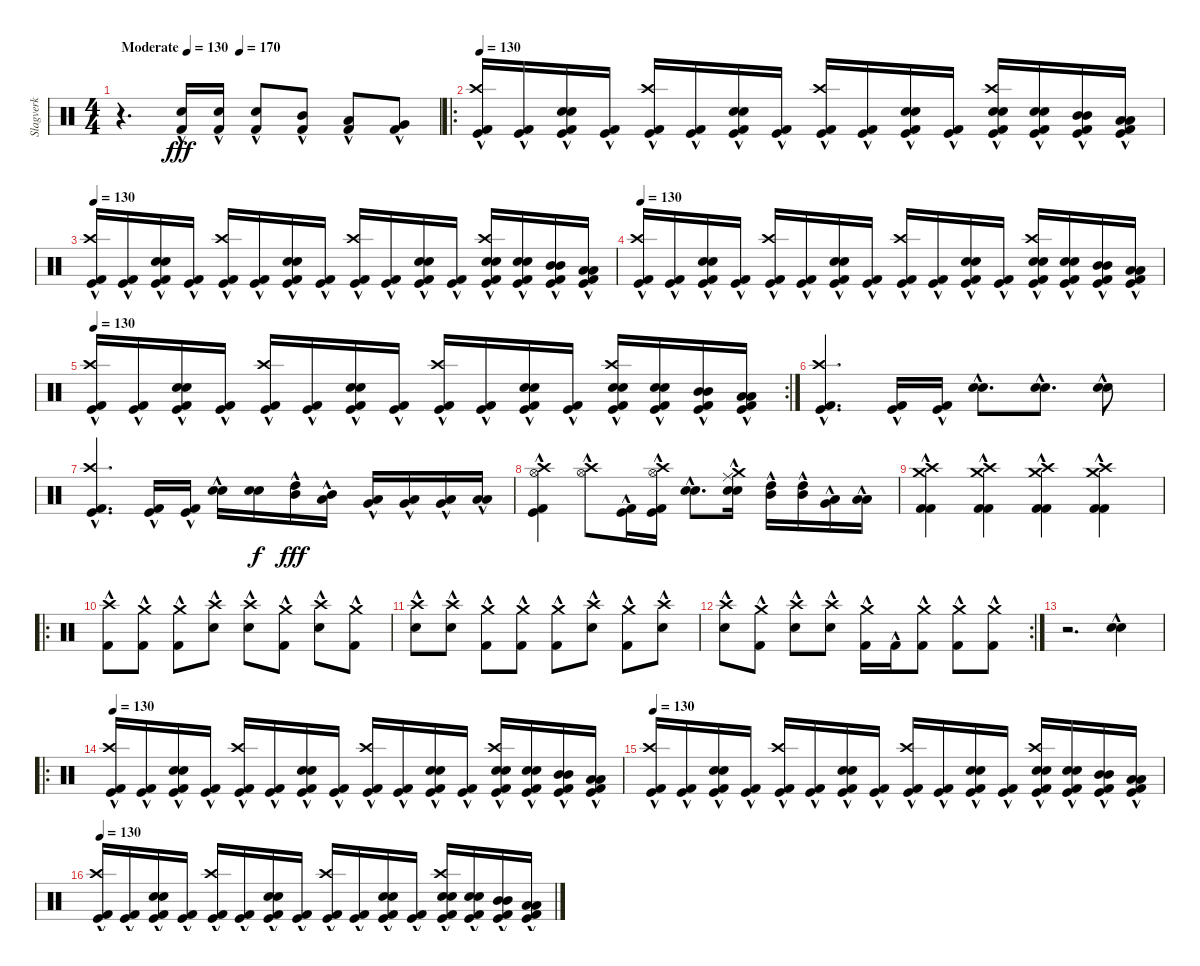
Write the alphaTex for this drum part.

\track ("Slagverk" "Slagverk") {instrument percussion}
\staff {score}
\articulation defaults
\ts (4 4)
\tempo (130 "Moderate")
\tempo (170 0.375)
\tempo (130 "Moderate")
\clef neutral
\ks c
r.4{d dy fff} ("Snare (hit) 2"{hac} "Kick (hit) 2"{hac}).16 ("Snare (hit) 2"{hac} "Kick (hit) 2"{hac}).16 ("Snare (hit) 2"{hac} "Kick (hit) 2"{hac}).8 ("Mid Tom (hit)"{hac} "Kick (hit) 2"{hac}).8 ("Low Tom (hit)"{hac} "Kick (hit) 2"{hac}).8 ("Very Low Tom (hit)"{hac} "Kick (hit) 2"{hac}).8 |
\ro
\tempo 130
("Crash high (hit)"{hac} "Kick (hit)"{hac} "Kick (hit) 2"{hac}).16 ("Kick (hit)"{hac} "Kick (hit) 2"{hac}).16 ("Kick (hit)"{hac} "Electric Snare (hit)"{hac} "Snare (hit) 2"{hac} "Kick (hit) 2"{hac}).16 ("Kick (hit)"{hac} "Kick (hit) 2"{hac}).16 ("Crash high (hit)"{hac} "Kick (hit)"{hac} "Kick (hit) 2"{hac}).16 ("Kick (hit)"{hac} "Kick (hit) 2"{hac}).16 ("Snare (hit) 2"{hac} "Electric Snare (hit)"{hac} "Kick (hit)"{hac} "Kick (hit) 2"{hac}).16 ("Kick (hit)"{hac} "Kick (hit) 2"{hac}).16 ("Crash high (hit)"{hac} "Kick (hit)"{hac} "Kick (hit) 2"{hac}).16 ("Kick (hit)"{hac} "Kick (hit) 2"{hac}).16 ("Electric Snare (hit)"{hac} "Snare (hit) 2"{hac} "Kick (hit)"{hac} "Kick (hit) 2"{hac}).16 ("Kick (hit)"{hac} "Kick (hit) 2"{hac}).16 ("Crash high (hit)"{hac} "Electric Snare (hit)"{hac} "Snare (hit) 2"{hac} "Kick (hit)"{hac} "Kick (hit) 2"{hac}).16 ("Electric Snare (hit)"{hac} "Snare (hit) 2"{hac} "Kick (hit)"{hac} "Kick (hit) 2"{hac}).16 ("Mid Tom (hit)"{hac} "Mid Tom (hit)"{hac} "Kick (hit)"{hac} "Kick (hit) 2"{hac}).16 ("Low Tom (hit)"{hac} "Low Tom (hit)"{hac} "Kick (hit)"{hac} "Kick (hit) 2"{hac}).16 |
\tempo 130
("Crash high (hit)"{hac} "Kick (hit)"{hac} "Kick (hit) 2"{hac}).16 ("Kick (hit)"{hac} "Kick (hit) 2"{hac}).16 ("Kick (hit)"{hac} "Electric Snare (hit)"{hac} "Snare (hit) 2"{hac} "Kick (hit) 2"{hac}).16 ("Kick (hit)"{hac} "Kick (hit) 2"{hac}).16 ("Crash high (hit)"{hac} "Kick (hit)"{hac} "Kick (hit) 2"{hac}).16 ("Kick (hit)"{hac} "Kick (hit) 2"{hac}).16 ("Snare (hit) 2"{hac} "Electric Snare (hit)"{hac} "Kick (hit)"{hac} "Kick (hit) 2"{hac}).16 ("Kick (hit)"{hac} "Kick (hit) 2"{hac}).16 ("Crash high (hit)"{hac} "Kick (hit)"{hac} "Kick (hit) 2"{hac}).16 ("Kick (hit)"{hac} "Kick (hit) 2"{hac}).16 ("Electric Snare (hit)"{hac} "Snare (hit) 2"{hac} "Kick (hit)"{hac} "Kick (hit) 2"{hac}).16 ("Kick (hit)"{hac} "Kick (hit) 2"{hac}).16 ("Crash high (hit)"{hac} "Electric Snare (hit)"{hac} "Snare (hit) 2"{hac} "Kick (hit)"{hac} "Kick (hit) 2"{hac}).16 ("Electric Snare (hit)"{hac} "Snare (hit) 2"{hac} "Kick (hit)"{hac} "Kick (hit) 2"{hac}).16 ("Mid Tom (hit)"{hac} "Mid Tom (hit)"{hac} "Kick (hit)"{hac} "Kick (hit) 2"{hac}).16 ("Low Tom (hit)"{hac} "Low Tom (hit)"{hac} "Kick (hit)"{hac} "Kick (hit) 2"{hac}).16 |
\tempo 130
("Crash high (hit)"{hac} "Kick (hit)"{hac} "Kick (hit) 2"{hac}).16 ("Kick (hit)"{hac} "Kick (hit) 2"{hac}).16 ("Kick (hit)"{hac} "Electric Snare (hit)"{hac} "Snare (hit) 2"{hac} "Kick (hit) 2"{hac}).16 ("Kick (hit)"{hac} "Kick (hit) 2"{hac}).16 ("Crash high (hit)"{hac} "Kick (hit)"{hac} "Kick (hit) 2"{hac}).16 ("Kick (hit)"{hac} "Kick (hit) 2"{hac}).16 ("Snare (hit) 2"{hac} "Electric Snare (hit)"{hac} "Kick (hit)"{hac} "Kick (hit) 2"{hac}).16 ("Kick (hit)"{hac} "Kick (hit) 2"{hac}).16 ("Crash high (hit)"{hac} "Kick (hit)"{hac} "Kick (hit) 2"{hac}).16 ("Kick (hit)"{hac} "Kick (hit) 2"{hac}).16 ("Electric Snare (hit)"{hac} "Snare (hit) 2"{hac} "Kick (hit)"{hac} "Kick (hit) 2"{hac}).16 ("Kick (hit)"{hac} "Kick (hit) 2"{hac}).16 ("Crash high (hit)"{hac} "Electric Snare (hit)"{hac} "Snare (hit) 2"{hac} "Kick (hit)"{hac} "Kick (hit) 2"{hac}).16 ("Electric Snare (hit)"{hac} "Snare (hit) 2"{hac} "Kick (hit)"{hac} "Kick (hit) 2"{hac}).16 ("Mid Tom (hit)"{hac} "Mid Tom (hit)"{hac} "Kick (hit)"{hac} "Kick (hit) 2"{hac}).16 ("Low Tom (hit)"{hac} "Low Tom (hit)"{hac} "Kick (hit)"{hac} "Kick (hit) 2"{hac}).16 |
\rc 2
\tempo 130
("Crash high (hit)"{hac} "Kick (hit)"{hac} "Kick (hit) 2"{hac}).16 ("Kick (hit)"{hac} "Kick (hit) 2"{hac}).16 ("Kick (hit)"{hac} "Electric Snare (hit)"{hac} "Snare (hit) 2"{hac} "Kick (hit) 2"{hac}).16 ("Kick (hit)"{hac} "Kick (hit) 2"{hac}).16 ("Crash high (hit)"{hac} "Kick (hit)"{hac} "Kick (hit) 2"{hac}).16 ("Kick (hit)"{hac} "Kick (hit) 2"{hac}).16 ("Snare (hit) 2"{hac} "Electric Snare (hit)"{hac} "Kick (hit)"{hac} "Kick (hit) 2"{hac}).16 ("Kick (hit)"{hac} "Kick (hit) 2"{hac}).16 ("Crash high (hit)"{hac} "Kick (hit)"{hac} "Kick (hit) 2"{hac}).16 ("Kick (hit)"{hac} "Kick (hit) 2"{hac}).16 ("Electric Snare (hit)"{hac} "Snare (hit) 2"{hac} "Kick (hit)"{hac} "Kick (hit) 2"{hac}).16 ("Kick (hit)"{hac} "Kick (hit) 2"{hac}).16 ("Crash high (hit)"{hac} "Electric Snare (hit)"{hac} "Snare (hit) 2"{hac} "Kick (hit)"{hac} "Kick (hit) 2"{hac}).16 ("Electric Snare (hit)"{hac} "Snare (hit) 2"{hac} "Kick (hit)"{hac} "Kick (hit) 2"{hac}).16 ("Mid Tom (hit)"{hac} "Mid Tom (hit)"{hac} "Kick (hit)"{hac} "Kick (hit) 2"{hac}).16 ("Low Tom (hit)"{hac} "Low Tom (hit)"{hac} "Kick (hit)"{hac} "Kick (hit) 2"{hac}).16 |
("Crash high (hit)"{hac} "Kick (hit)"{hac} "Kick (hit) 2"{hac}).4{d} ("Kick (hit)"{hac} "Kick (hit) 2"{hac}).16 ("Kick (hit)"{hac} "Kick (hit) 2"{hac}).16 ("Electric Snare (hit)"{hac} "Snare (hit) 2"{hac}).8{d} ("Electric Snare (hit)"{hac} "Snare (hit) 2"{hac}).8{d} ("Electric Snare (hit)"{hac} "Snare (hit) 2"{hac}).8 |
("Crash high (hit)"{hac} "Kick (hit)"{hac} "Kick (hit) 2"{hac}).4{d} ("Kick (hit)"{hac} "Kick (hit) 2"{hac}).16 ("Kick (hit)"{hac} "Kick (hit) 2"{hac}).16 ("Electric Snare (hit)"{hac} "Snare (hit) 2"{hac}).16 ("Electric Snare (hit)" "Snare (hit) 2").16{dy f} ("Mid Tom (hit)"{hac} "High Tom (hit)"{hac}).16{dy fff} ("Low Tom (hit)"{hac} "Mid Tom (hit)"{hac}).16 ("Very Low Tom (hit)"{hac} "Low Tom (hit)"{hac}).16 ("Low Floor Tom (hit)"{hac} "Very Low Tom (hit)"{hac}).16 ("Very Low Tom (hit)"{hac} "Low Floor Tom (hit)"{hac}).16 ("Low Tom (hit)"{hac} "Low Floor Tom (hit)"{hac}).16 |
("Crash high (hit)"{hac} "Hi-Hat (open)"{hac} "Kick (hit)"{hac} "Kick (hit) 2"{hac}).4 ("Crash high (hit)"{hac} "Hi-Hat (open)"{hac}).8 ("Kick (hit)"{hac} "Kick (hit) 2"{hac}).16 ("Crash high (hit)"{hac} "Hi-Hat (open)"{hac} "Kick (hit)"{hac} "Kick (hit) 2"{hac}).16 ("Electric Snare (hit)"{hac} "Snare (hit) 2"{hac}).8{d} ("Ride (middle)"{hac} "Crash medium (hit)"{hac} "Electric Snare (hit)"{hac} "Snare (hit) 2"{hac}).16 ("Mid Tom (hit)"{hac} "High Tom (hit)"{hac}).16 ("High Tom (hit)"{hac} "Mid Tom (hit)"{hac}).16 ("Very Low Tom (hit)"{hac} "Low Tom (hit)"{hac}).16 ("Low Tom (hit)"{hac} "Low Floor Tom (hit)"{hac}).16 |
("Crash high (hit)"{hac} "Crash medium (hit)"{hac} "Kick (hit) 2"{hac} "Kick (hit) 2"{hac}).4 ("Crash high (hit)"{hac} "Crash medium (hit)"{hac} "Kick (hit) 2"{hac} "Kick (hit) 2"{hac}).4 ("Crash high (hit)"{hac} "Crash medium (hit)"{hac} "Kick (hit) 2"{hac} "Kick (hit) 2"{hac}).4 ("Crash high (hit)"{hac} "Crash medium (hit)"{hac} "Kick (hit) 2"{hac} "Kick (hit) 2"{hac}).4 |
\ro
("Crash high (hit)"{hac} "Kick (hit) 2"{hac}).8 ("Crash medium (hit)"{hac} "Kick (hit) 2"{hac}).8 ("Crash medium (hit)"{hac} "Kick (hit) 2"{hac}).8 ("Crash high (hit)"{hac} "Snare (hit) 2"{hac}).8 ("Crash high (hit)"{hac} "Snare (hit) 2"{hac}).8 ("Crash medium (hit)"{hac} "Kick (hit) 2"{hac}).8 ("Crash high (hit)"{hac} "Snare (hit) 2"{hac}).8 ("Crash medium (hit)"{hac} "Kick (hit) 2"{hac}).8 |
("Crash high (hit)"{hac} "Snare (hit) 2"{hac}).8 ("Crash high (hit)"{hac} "Snare (hit) 2"{hac}).8 ("Crash medium (hit)"{hac} "Kick (hit) 2"{hac}).8 ("Crash medium (hit)"{hac} "Kick (hit) 2"{hac}).8 ("Crash medium (hit)"{hac} "Kick (hit) 2"{hac}).8 ("Crash high (hit)"{hac} "Snare (hit) 2"{hac}).8 ("Crash medium (hit)"{hac} "Kick (hit) 2"{hac}).8 ("Crash high (hit)"{hac} "Snare (hit) 2"{hac}).8 |
\rc 2
("Crash high (hit)"{hac} "Snare (hit) 2"{hac}).8 ("Crash medium (hit)"{hac} "Kick (hit) 2"{hac}).8 ("Crash high (hit)"{hac} "Snare (hit) 2"{hac}).8 ("Crash high (hit)"{hac} "Snare (hit) 2"{hac}).8 ("Crash medium (hit)"{hac} "Kick (hit) 2"{hac}).16 "Kick (hit) 2"{hac}.16 ("Crash medium (hit)"{hac} "Kick (hit) 2"{hac}).8 ("Crash medium (hit)"{hac} "Kick (hit) 2"{hac}).8 ("Crash medium (hit)"{hac} "Kick (hit) 2"{hac}).8 |
r.2{d} ("Electric Snare (hit)"{hac} "Snare (hit) 2"{hac}).4 |
\ro
\tempo 130
("Crash high (hit)"{hac} "Kick (hit)"{hac} "Kick (hit) 2"{hac}).16 ("Kick (hit)"{hac} "Kick (hit) 2"{hac}).16 ("Kick (hit)"{hac} "Electric Snare (hit)"{hac} "Snare (hit) 2"{hac} "Kick (hit) 2"{hac}).16 ("Kick (hit)"{hac} "Kick (hit) 2"{hac}).16 ("Crash high (hit)"{hac} "Kick (hit)"{hac} "Kick (hit) 2"{hac}).16 ("Kick (hit)"{hac} "Kick (hit) 2"{hac}).16 ("Snare (hit) 2"{hac} "Electric Snare (hit)"{hac} "Kick (hit)"{hac} "Kick (hit) 2"{hac}).16 ("Kick (hit)"{hac} "Kick (hit) 2"{hac}).16 ("Crash high (hit)"{hac} "Kick (hit)"{hac} "Kick (hit) 2"{hac}).16 ("Kick (hit)"{hac} "Kick (hit) 2"{hac}).16 ("Electric Snare (hit)"{hac} "Snare (hit) 2"{hac} "Kick (hit)"{hac} "Kick (hit) 2"{hac}).16 ("Kick (hit)"{hac} "Kick (hit) 2"{hac}).16 ("Crash high (hit)"{hac} "Electric Snare (hit)"{hac} "Snare (hit) 2"{hac} "Kick (hit)"{hac} "Kick (hit) 2"{hac}).16 ("Electric Snare (hit)"{hac} "Snare (hit) 2"{hac} "Kick (hit)"{hac} "Kick (hit) 2"{hac}).16 ("Mid Tom (hit)"{hac} "Mid Tom (hit)"{hac} "Kick (hit)"{hac} "Kick (hit) 2"{hac}).16 ("Low Tom (hit)"{hac} "Low Tom (hit)"{hac} "Kick (hit)"{hac} "Kick (hit) 2"{hac}).16 |
\tempo 130
("Crash high (hit)"{hac} "Kick (hit)"{hac} "Kick (hit) 2"{hac}).16 ("Kick (hit)"{hac} "Kick (hit) 2"{hac}).16 ("Kick (hit)"{hac} "Electric Snare (hit)"{hac} "Snare (hit) 2"{hac} "Kick (hit) 2"{hac}).16 ("Kick (hit)"{hac} "Kick (hit) 2"{hac}).16 ("Crash high (hit)"{hac} "Kick (hit)"{hac} "Kick (hit) 2"{hac}).16 ("Kick (hit)"{hac} "Kick (hit) 2"{hac}).16 ("Snare (hit) 2"{hac} "Electric Snare (hit)"{hac} "Kick (hit)"{hac} "Kick (hit) 2"{hac}).16 ("Kick (hit)"{hac} "Kick (hit) 2"{hac}).16 ("Crash high (hit)"{hac} "Kick (hit)"{hac} "Kick (hit) 2"{hac}).16 ("Kick (hit)"{hac} "Kick (hit) 2"{hac}).16 ("Electric Snare (hit)"{hac} "Snare (hit) 2"{hac} "Kick (hit)"{hac} "Kick (hit) 2"{hac}).16 ("Kick (hit)"{hac} "Kick (hit) 2"{hac}).16 ("Crash high (hit)"{hac} "Electric Snare (hit)"{hac} "Snare (hit) 2"{hac} "Kick (hit)"{hac} "Kick (hit) 2"{hac}).16 ("Electric Snare (hit)"{hac} "Snare (hit) 2"{hac} "Kick (hit)"{hac} "Kick (hit) 2"{hac}).16 ("Mid Tom (hit)"{hac} "Mid Tom (hit)"{hac} "Kick (hit)"{hac} "Kick (hit) 2"{hac}).16 ("Low Tom (hit)"{hac} "Low Tom (hit)"{hac} "Kick (hit)"{hac} "Kick (hit) 2"{hac}).16 |
\tempo 130
("Crash high (hit)"{hac} "Kick (hit)"{hac} "Kick (hit) 2"{hac}).16 ("Kick (hit)"{hac} "Kick (hit) 2"{hac}).16 ("Kick (hit)"{hac} "Electric Snare (hit)"{hac} "Snare (hit) 2"{hac} "Kick (hit) 2"{hac}).16 ("Kick (hit)"{hac} "Kick (hit) 2"{hac}).16 ("Crash high (hit)"{hac} "Kick (hit)"{hac} "Kick (hit) 2"{hac}).16 ("Kick (hit)"{hac} "Kick (hit) 2"{hac}).16 ("Snare (hit) 2"{hac} "Electric Snare (hit)"{hac} "Kick (hit)"{hac} "Kick (hit) 2"{hac}).16 ("Kick (hit)"{hac} "Kick (hit) 2"{hac}).16 ("Crash high (hit)"{hac} "Kick (hit)"{hac} "Kick (hit) 2"{hac}).16 ("Kick (hit)"{hac} "Kick (hit) 2"{hac}).16 ("Electric Snare (hit)"{hac} "Snare (hit) 2"{hac} "Kick (hit)"{hac} "Kick (hit) 2"{hac}).16 ("Kick (hit)"{hac} "Kick (hit) 2"{hac}).16 ("Crash high (hit)"{hac} "Electric Snare (hit)"{hac} "Snare (hit) 2"{hac} "Kick (hit)"{hac} "Kick (hit) 2"{hac}).16 ("Electric Snare (hit)"{hac} "Snare (hit) 2"{hac} "Kick (hit)"{hac} "Kick (hit) 2"{hac}).16 ("Mid Tom (hit)"{hac} "Mid Tom (hit)"{hac} "Kick (hit)"{hac} "Kick (hit) 2"{hac}).16 ("Low Tom (hit)"{hac} "Low Tom (hit)"{hac} "Kick (hit)"{hac} "Kick (hit) 2"{hac}).16
